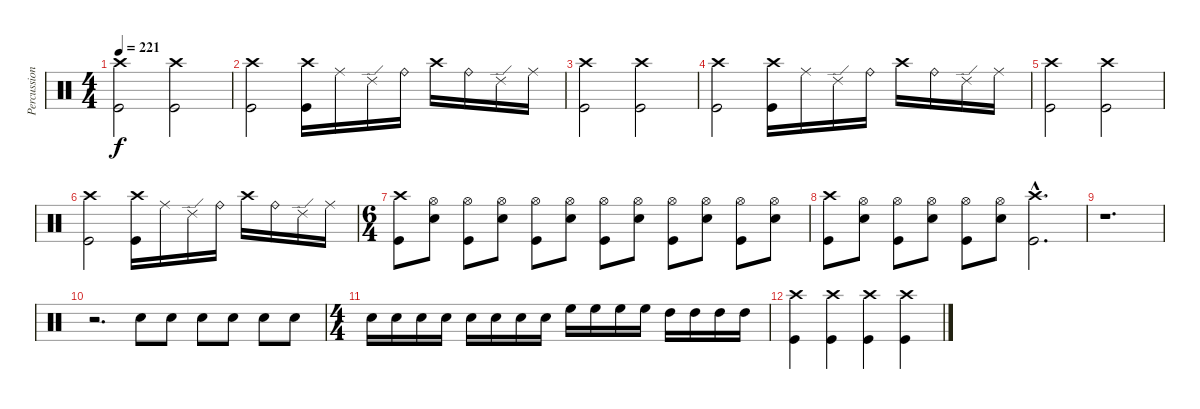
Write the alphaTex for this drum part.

\track ("Percussion" "Percussion") {instrument percussion}
\staff {score}
\articulation defaults
\ts (4 4)
\tempo 221
\clef neutral
\ks c
("Crash high (hit)" "Kick (hit)").2{dy f} ("Crash high (hit)" "Kick (hit)").2 |
("Crash high (hit)" "Kick (hit)").2 ("Crash high (hit)" "Kick (hit)").16 "Ride (middle)".16 "Ride (edge) 2".16 "Ride (bell)".16 "Crash high (hit)".16 "Ride (bell)".16 "Ride (edge) 2".16 "Ride (middle)".16 |
("Crash high (hit)" "Kick (hit)").2 ("Crash high (hit)" "Kick (hit)").2 |
("Crash high (hit)" "Kick (hit)").2 ("Crash high (hit)" "Kick (hit)").16 "Ride (middle)".16 "Ride (edge) 2".16 "Ride (bell)".16 "Crash high (hit)".16 "Ride (bell)".16 "Ride (edge) 2".16 "Ride (middle)".16 |
("Crash high (hit)" "Kick (hit)").2 ("Crash high (hit)" "Kick (hit)").2 |
("Crash high (hit)" "Kick (hit)").2 ("Crash high (hit)" "Kick (hit)").16 "Ride (middle)".16 "Ride (edge) 2".16 "Ride (bell)".16 "Crash high (hit)".16 "Ride (bell)".16 "Ride (edge) 2".16 "Ride (middle)".16 |
\ts (6 4)
("Crash high (hit)" "Kick (hit)").8 ("Hi-Hat (open)" "Snare (hit) 2").8 ("Hi-Hat (open)" "Kick (hit)").8 ("Hi-Hat (open)" "Snare (hit) 2").8 ("Hi-Hat (open)" "Kick (hit)").8 ("Hi-Hat (open)" "Snare (hit) 2").8 ("Hi-Hat (open)" "Kick (hit)").8 ("Hi-Hat (open)" "Snare (hit) 2").8 ("Hi-Hat (open)" "Kick (hit)").8 ("Hi-Hat (open)" "Snare (hit) 2").8 ("Hi-Hat (open)" "Kick (hit)").8 ("Hi-Hat (open)" "Snare (hit) 2").8 |
("Crash high (hit)" "Kick (hit)").8 ("Hi-Hat (open)" "Snare (hit) 2").8 ("Hi-Hat (open)" "Kick (hit)").8 ("Hi-Hat (open)" "Snare (hit) 2").8 ("Hi-Hat (open)" "Kick (hit)").8 ("Hi-Hat (open)" "Snare (hit) 2").8 ("Crash high (hit)"{hac} "Kick (hit)"{hac}).2{d} |
r.1{d} |
r.2{d} "Electric Snare (hit)".8 "Electric Snare (hit)".8 "Electric Snare (hit)".8 "Electric Snare (hit)".8 "Electric Snare (hit)".8 "Electric Snare (hit)".8 |
\ts (4 4)
"Electric Snare (hit)".16 "Electric Snare (hit)".16 "Electric Snare (hit)".16 "Electric Snare (hit)".16 "Electric Snare (hit)".16 "Electric Snare (hit)".16 "Electric Snare (hit)".16 "Electric Snare (hit)".16 "High Floor Tom (hit)".16 "High Floor Tom (hit)".16 "High Floor Tom (hit)".16 "High Floor Tom (hit)".16 "High Tom (hit)".16 "High Tom (hit)".16 "High Tom (hit)".16 "High Tom (hit)".16 |
("Crash high (hit)" "Kick (hit)").4 ("Crash high (hit)" "Kick (hit)").4 ("Crash high (hit)" "Kick (hit)").4 ("Crash high (hit)" "Kick (hit)").4
